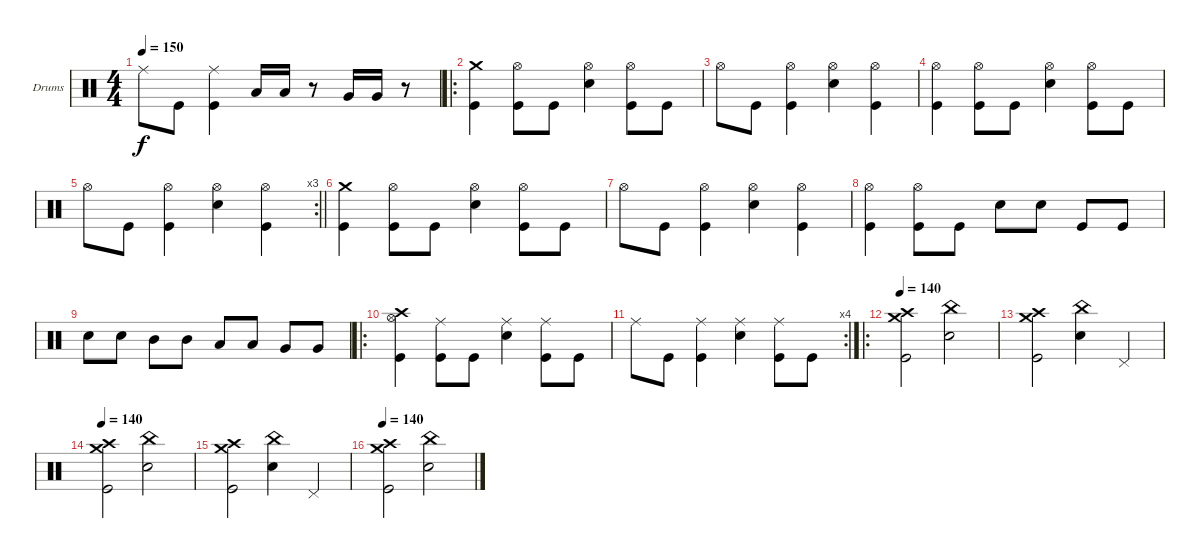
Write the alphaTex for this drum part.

\bracketExtendMode groupsimilarinstruments
\firstSystemTrackNameOrientation horizontal
\otherSystemsTrackNameOrientation horizontal
\track ("Drumkit" "Drums") {instrument percussion}
\staff {score}
\articulation defaults
\ts (4 4)
\tempo 150
\clef neutral
\ks c "Ride (middle)".8{dy f} "Kick (hit)".8
("Ride (middle)" "Kick (hit)").4 "Low Tom (hit)".16 "Low Tom (hit)".16 r.8 "Very Low Tom (hit)".16 "Very Low Tom (hit)".16 r.8 |
\ro
("Crash medium (hit)" "Kick (hit)").4 ("Hi-Hat (open)" "Kick (hit)").8 "Kick (hit)".8 ("Hi-Hat (open)" "Snare (hit) 2").4 ("Hi-Hat (open)" "Kick (hit)").8 "Kick (hit)".8 |
"Hi-Hat (open)".8 "Kick (hit)".8 ("Hi-Hat (open)" "Kick (hit)").4 ("Hi-Hat (open)" "Snare (hit) 2").4 ("Hi-Hat (open)" "Kick (hit)").4 |
("Hi-Hat (open)" "Kick (hit)").4 ("Hi-Hat (open)" "Kick (hit)").8 "Kick (hit)".8 ("Hi-Hat (open)" "Snare (hit) 2").4 ("Hi-Hat (open)" "Kick (hit)").8 "Kick (hit)".8 |
\rc 3
\barLineRight lightlight "Hi-Hat (open)".8 "Kick (hit)".8
("Hi-Hat (open)" "Kick (hit)").4 ("Hi-Hat (open)" "Snare (hit) 2").4 ("Hi-Hat (open)" "Kick (hit)").4 |
("Crash medium (hit)" "Kick (hit)").4 ("Hi-Hat (open)" "Kick (hit)").8 "Kick (hit)".8 ("Hi-Hat (open)" "Snare (hit) 2").4 ("Hi-Hat (open)" "Kick (hit)").8 "Kick (hit)".8 |
"Hi-Hat (open)".8 "Kick (hit)".8 ("Hi-Hat (open)" "Kick (hit)").4 ("Hi-Hat (open)" "Snare (hit) 2").4 ("Hi-Hat (open)" "Kick (hit)").4 |
("Hi-Hat (open)" "Kick (hit)").4 ("Hi-Hat (open)" "Kick (hit)").8 "Kick (hit)".8 "Snare (hit) 2".8 "Snare (hit) 2".8 "Kick (hit)".8 "Kick (hit)".8 |
"Snare (hit) 2".8 "Snare (hit) 2".8 "Mid Tom (hit)".8 "Mid Tom (hit)".8 "Low Tom (hit)".8 "Low Tom (hit)".8 "Very Low Tom (hit)".8 "Very Low Tom (hit)".8 |
\ro
("Hi-Hat (open)" "Crash high (hit)" "Kick (hit)").4 ("Ride (middle)" "Kick (hit)").8 "Kick (hit)".8 ("Ride (middle)" "Snare (hit) 2").4 ("Ride (middle)" "Kick (hit)").8 "Kick (hit)".8 |
\rc 4 "Ride (middle)".8 "Kick (hit)".8
("Ride (middle)" "Kick (hit)").4 ("Ride (middle)" "Snare (hit) 2").4 ("Ride (middle)" "Kick (hit)").8 "Kick (hit)".8 |
\ro
\tempo 140
("Crash medium (hit)" "Crash high (hit)" "Kick (hit)").2 ("China (hit)" "Snare (hit) 2").2 |
("Crash medium (hit)" "Crash high (hit)" "Kick (hit)").2 ("China (hit)" "Snare (hit) 2").4 "Pedal Hi-Hat (hit)".4 |
\tempo 140
("Crash medium (hit)" "Crash high (hit)" "Kick (hit)").2 ("China (hit)" "Snare (hit) 2").2 |
("Crash medium (hit)" "Crash high (hit)" "Kick (hit)").2 ("China (hit)" "Snare (hit) 2").4 "Pedal Hi-Hat (hit)".4 |
\tempo 140
("Crash medium (hit)" "Crash high (hit)" "Kick (hit)").2 ("China (hit)" "Snare (hit) 2").2
